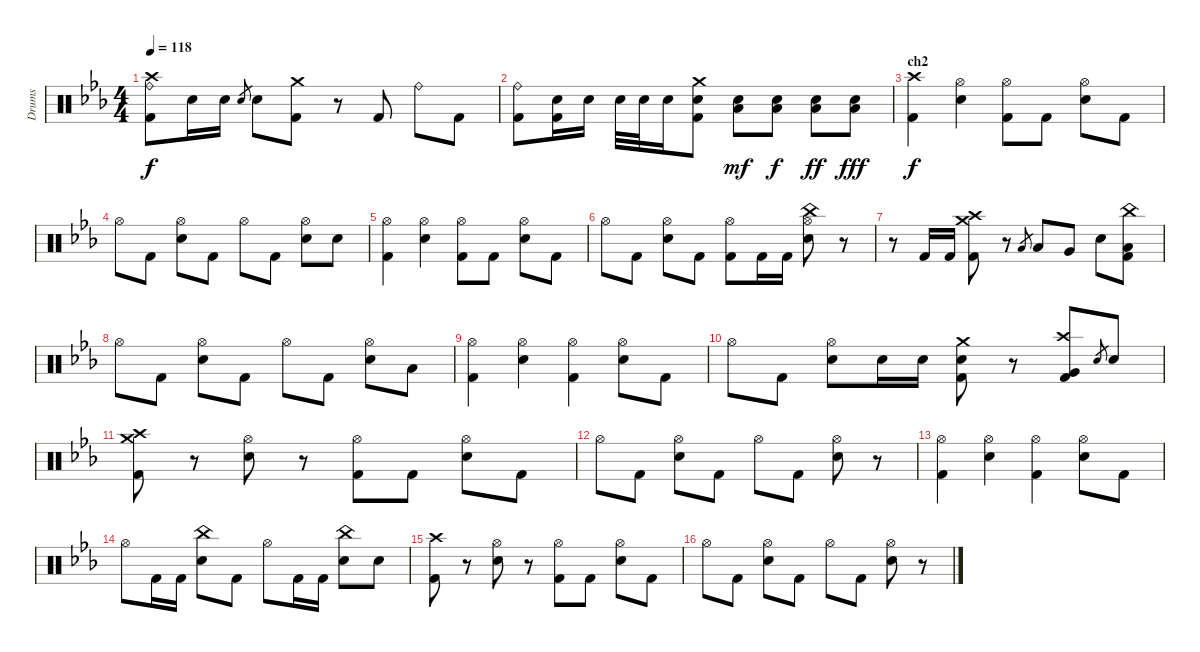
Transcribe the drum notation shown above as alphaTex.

\track ("Drums" "Drums") {instrument percussion}
\staff {score}
\articulation defaults
\ts (4 4)
\tempo 118
\clef neutral
\ks cminor
("Kick (hit) 2" "Ride (bell)" "Crash high (hit)").8{dy f} "Electric Snare (hit)".16 "Electric Snare (hit)".16 "Electric Snare (hit)".8{gr} "Electric Snare (hit)".8 ("Kick (hit) 2" "Crash medium (hit)").8 r.8 "Kick (hit) 2".8 "Ride (bell)".8 "Kick (hit) 2".8 |
("Kick (hit) 2" "Ride (bell)").8 ("Kick (hit) 2" "Electric Snare (hit)").16 "Electric Snare (hit)".16 "Electric Snare (hit)".32 "Electric Snare (hit)".32 "Electric Snare (hit)".16 ("Kick (hit) 2" "Electric Snare (hit)" "Crash medium (hit)").8 ("Electric Snare (hit)" "Low Floor Tom (hit)").8{dy mf} ("Electric Snare (hit)" "Low Floor Tom (hit)").8{dy f} ("Electric Snare (hit)" "Low Floor Tom (hit)").8{dy ff} ("Electric Snare (hit)" "Low Floor Tom (hit)").8{dy fff} |
\section ("" "ch2")
("Kick (hit) 2" "Crash high (hit)").4{dy f} ("Hi-Hat (open)" "Electric Snare (hit)").4 ("Kick (hit) 2" "Hi-Hat (open)").8 "Kick (hit) 2".8 ("Hi-Hat (open)" "Electric Snare (hit)").8 "Kick (hit) 2".8 |
"Hi-Hat (open)".8 "Kick (hit) 2".8 ("Hi-Hat (open)" "Electric Snare (hit)").8 "Kick (hit) 2".8 "Hi-Hat (open)".8 "Kick (hit) 2".8 ("Hi-Hat (open)" "Electric Snare (hit)").8 "Electric Snare (hit)".8 |
("Kick (hit) 2" "Hi-Hat (open)").4 ("Hi-Hat (open)" "Electric Snare (hit)").4 ("Kick (hit) 2" "Hi-Hat (open)").8 "Kick (hit) 2".8 ("Hi-Hat (open)" "Electric Snare (hit)").8 "Kick (hit) 2".8 |
"Hi-Hat (open)".8 "Kick (hit) 2".8 ("Hi-Hat (open)" "Electric Snare (hit)").8 "Kick (hit) 2".8 ("Kick (hit) 2" "Hi-Hat (open)").8 "Kick (hit) 2".16 "Kick (hit) 2".16 ("Hi-Hat (open)" "Electric Snare (hit)" "China (hit)").8 r.8 |
r.8 "Kick (hit) 2".16 "Kick (hit) 2".16 ("Kick (hit) 2" "Crash high (hit)" "Crash medium (hit)").8 r.8 "Low Tom (hit)".8{gr} "Low Tom (hit)".8 "Very Low Tom (hit)".8 "Electric Snare (hit)".8 ("Kick (hit) 2" "Low Floor Tom (hit)" "China (hit)").8 |
"Hi-Hat (open)".8 "Kick (hit) 2".8 ("Hi-Hat (open)" "Electric Snare (hit)").8 "Kick (hit) 2".8 "Hi-Hat (open)".8 "Kick (hit) 2".8 ("Hi-Hat (open)" "Electric Snare (hit)").8 "Low Tom (hit)".8 |
("Kick (hit) 2" "Hi-Hat (open)").4 ("Hi-Hat (open)" "Electric Snare (hit)").4 ("Kick (hit) 2" "Hi-Hat (open)").4 ("Hi-Hat (open)" "Electric Snare (hit)").8 "Kick (hit) 2".8 |
"Hi-Hat (open)".8 "Kick (hit) 2".8 ("Hi-Hat (open)" "Electric Snare (hit)").8 "Electric Snare (hit)".16 "Electric Snare (hit)".16 ("Kick (hit) 2" "Electric Snare (hit)" "Crash medium (hit)").8 r.8 ("Kick (hit) 2" "Very Low Tom (hit)" "Crash high (hit)").8 "Electric Snare (hit)".8{gr} "Electric Snare (hit)".8 |
("Kick (hit) 2" "Crash high (hit)" "Crash medium (hit)").8 r.8 ("Hi-Hat (open)" "Electric Snare (hit)").8 r.8 ("Kick (hit) 2" "Hi-Hat (open)").8 "Kick (hit) 2".8 ("Hi-Hat (open)" "Electric Snare (hit)").8 "Kick (hit) 2".8 |
"Hi-Hat (open)".8 "Kick (hit) 2".8 ("Hi-Hat (open)" "Electric Snare (hit)").8 "Kick (hit) 2".8 "Hi-Hat (open)".8 "Kick (hit) 2".8 ("Hi-Hat (open)" "Electric Snare (hit)").8 r.8 |
("Kick (hit) 2" "Hi-Hat (open)").4 ("Hi-Hat (open)" "Electric Snare (hit)").4 ("Kick (hit) 2" "Hi-Hat (open)").4 ("Hi-Hat (open)" "Electric Snare (hit)").8 "Kick (hit) 2".8 |
"Hi-Hat (open)".8 "Kick (hit) 2".16 "Kick (hit) 2".16 ("Electric Snare (hit)" "China (hit)").8 "Kick (hit) 2".8 "Hi-Hat (open)".8 "Kick (hit) 2".16 "Kick (hit) 2".16 ("Electric Snare (hit)" "China (hit)").8 "Electric Snare (hit)".8 |
("Kick (hit) 2" "Crash high (hit)").8 r.8 ("Hi-Hat (open)" "Electric Snare (hit)").8 r.8 ("Kick (hit) 2" "Hi-Hat (open)").8 "Kick (hit) 2".8 ("Hi-Hat (open)" "Electric Snare (hit)").8 "Kick (hit) 2".8 |
"Hi-Hat (open)".8 "Kick (hit) 2".8 ("Hi-Hat (open)" "Electric Snare (hit)").8 "Kick (hit) 2".8 "Hi-Hat (open)".8 "Kick (hit) 2".8 ("Hi-Hat (open)" "Electric Snare (hit)").8 r.8
